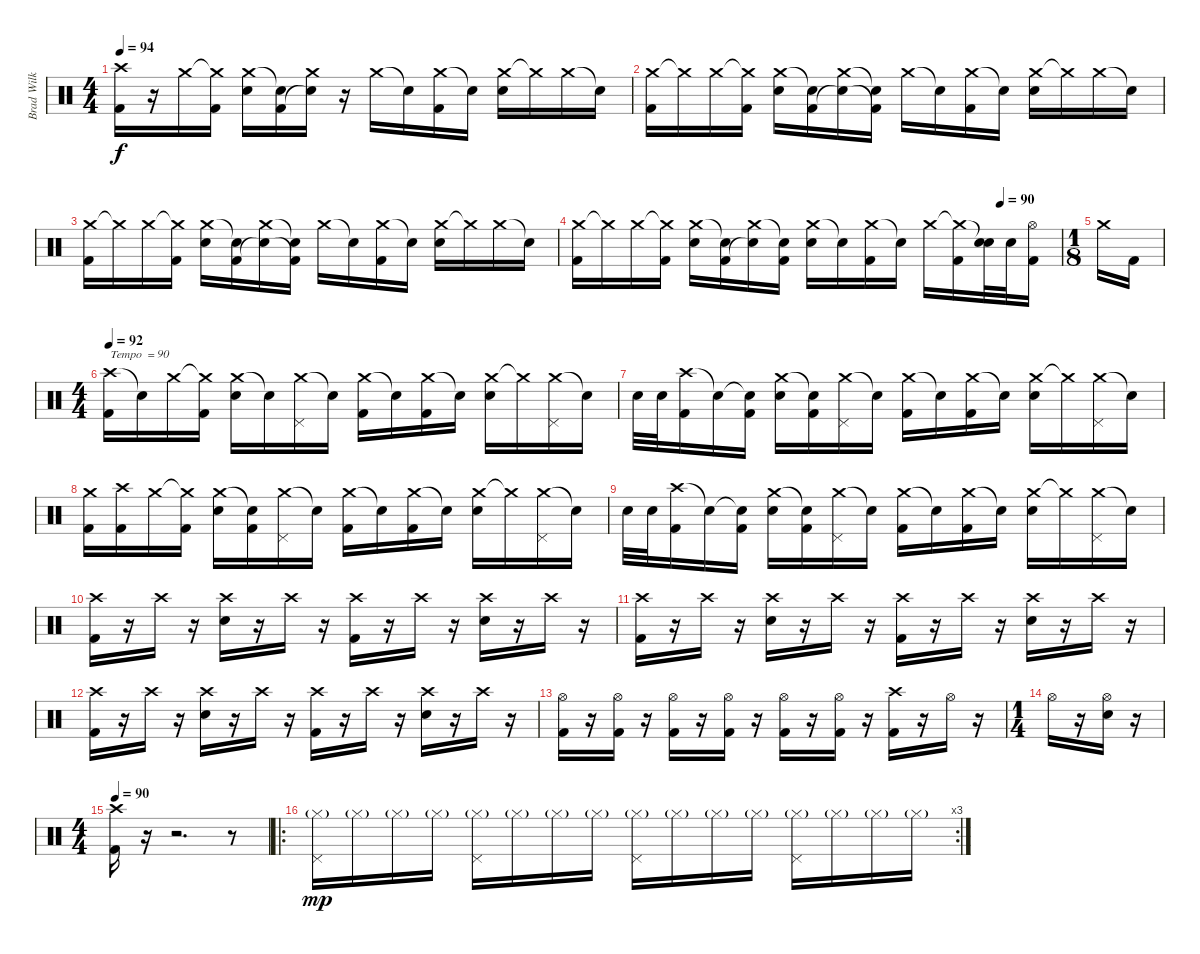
\track ("Brad Wilk (Drums)" "Brad Wilk ") {instrument percussion}
\staff {score}
\articulation defaults
\ts (4 4)
\tempo 94
\clef neutral
\ks c
("Crash high (hit)" "Kick (hit) 2").16{dy f} r.16 "Crash medium (hit)".16 ("Crash medium (hit)"{t} "Kick (hit) 2").16 ("Crash medium (hit)" "Snare (hit) 2").16 ("Snare (hit)"{t} "Kick (hit) 2").16 ("Crash medium (hit)" "Snare (hit)"{t}).16 r.16 "Crash medium (hit)".16 "Snare (hit)"{t}.16 ("Crash medium (hit)" "Kick (hit) 2").16 "Snare (hit)"{t}.16 ("Crash medium (hit)" "Snare (hit) 2").16 "Crash medium (hit)"{t}.16 "Crash medium (hit)".16 "Snare (hit)"{t}.16 |
("Crash medium (hit)" "Kick (hit) 2").16 "Crash medium (hit)"{t}.16 "Crash medium (hit)".16 ("Crash medium (hit)"{t} "Kick (hit) 2").16 ("Crash medium (hit)" "Snare (hit) 2").16 ("Snare (hit)"{t} "Kick (hit) 2").16 ("Crash medium (hit)" "Snare (hit)"{t}).16 ("Snare (hit)"{t} "Kick (hit) 2"{t}).16 "Crash medium (hit)".16 "Snare (hit)"{t}.16 ("Crash medium (hit)" "Kick (hit) 2").16 "Snare (hit)"{t}.16 ("Crash medium (hit)" "Snare (hit) 2").16 "Crash medium (hit)"{t}.16 "Crash medium (hit)".16 "Snare (hit)"{t}.16 |
("Crash medium (hit)" "Kick (hit) 2").16 "Crash medium (hit)"{t}.16 "Crash medium (hit)".16 ("Crash medium (hit)"{t} "Kick (hit) 2").16 ("Crash medium (hit)" "Snare (hit) 2").16 ("Snare (hit)"{t} "Kick (hit) 2").16 ("Crash medium (hit)" "Snare (hit)"{t}).16 ("Snare (hit)"{t} "Kick (hit) 2"{t}).16 "Crash medium (hit)".16 "Snare (hit)"{t}.16 ("Crash medium (hit)" "Kick (hit) 2").16 "Snare (hit)"{t}.16 ("Crash medium (hit)" "Snare (hit) 2").16 "Crash medium (hit)"{t}.16 "Crash medium (hit)".16 "Snare (hit)"{t}.16 |
\tempo (90 0.875)
("Crash medium (hit)" "Kick (hit) 2").16 "Crash medium (hit)"{t}.16 "Crash medium (hit)".16 ("Crash medium (hit)"{t} "Kick (hit) 2").16 ("Crash medium (hit)" "Snare (hit) 2").16 ("Snare (hit)"{t} "Kick (hit) 2").16 ("Crash medium (hit)" "Snare (hit)"{t}).16 ("Snare (hit)"{t} "Kick (hit) 2").16 ("Crash medium (hit)" "Snare (hit) 2").16 "Snare (hit)"{t}.16 ("Crash medium (hit)" "Kick (hit) 2").16 "Snare (hit)"{t}.16 "Crash medium (hit)".16 ("Crash medium (hit)"{t} "Kick (hit) 2").16 ("Snare (hit)"{t} "Snare (hit) 2").32 "Snare (hit) 2".32 ("Hi-Hat (open)" "Kick (hit) 2").16 |
\ts (1 8)
"Crash medium (hit)".16 "Kick (hit) 2".16 |
\ts (4 4)
\tempo 92
("Crash high (hit)" "Kick (hit) 2").16{txt "Tempo  = 90"} "Snare (hit)"{t}.16 "Crash medium (hit)".16 ("Crash medium (hit)"{t} "Kick (hit) 2").16 ("Crash medium (hit)" "Snare (hit) 2").16 "Snare (hit)"{t}.16 ("Crash medium (hit)" "Pedal Hi-Hat (hit)").16 "Snare (hit)"{t}.16 ("Crash medium (hit)" "Kick (hit) 2").16 "Snare (hit)"{t}.16 ("Crash medium (hit)" "Kick (hit) 2").16 "Snare (hit)"{t}.16 ("Crash medium (hit)" "Snare (hit) 2").16 "Crash medium (hit)"{t}.16 ("Crash medium (hit)" "Pedal Hi-Hat (hit)").16 "Snare (hit)"{t}.16 |
"Snare (hit) 2".32 "Snare (hit) 2".32 ("Crash high (hit)" "Kick (hit) 2").16 "Snare (hit)"{t}.16 ("Snare (hit)"{t} "Kick (hit) 2").16 ("Crash medium (hit)" "Snare (hit) 2").16 ("Snare (hit)"{t} "Kick (hit) 2").16 ("Crash medium (hit)" "Pedal Hi-Hat (hit)").16 "Snare (hit)"{t}.16 ("Crash medium (hit)" "Kick (hit) 2").16 "Snare (hit)"{t}.16 ("Crash medium (hit)" "Kick (hit) 2").16 "Snare (hit)"{t}.16 ("Crash medium (hit)" "Snare (hit) 2").16 "Crash medium (hit)"{t}.16 ("Crash medium (hit)" "Pedal Hi-Hat (hit)").16 "Snare (hit)"{t}.16 |
("Crash medium (hit)" "Kick (hit) 2").16 ("Crash high (hit)" "Kick (hit) 2").16 "Crash medium (hit)".16 ("Crash medium (hit)"{t} "Kick (hit) 2").16 ("Crash medium (hit)" "Snare (hit) 2").16 ("Snare (hit)"{t} "Kick (hit) 2").16 ("Crash medium (hit)" "Pedal Hi-Hat (hit)").16 "Snare (hit)"{t}.16 ("Crash medium (hit)" "Kick (hit) 2").16 "Snare (hit)"{t}.16 ("Crash medium (hit)" "Kick (hit) 2").16 "Snare (hit)"{t}.16 ("Crash medium (hit)" "Snare (hit) 2").16 "Crash medium (hit)"{t}.16 ("Crash medium (hit)" "Pedal Hi-Hat (hit)").16 "Snare (hit)"{t}.16 |
"Snare (hit) 2".32 "Snare (hit) 2".32 ("Crash high (hit)" "Kick (hit) 2").16 "Snare (hit)"{t}.16 ("Snare (hit)"{t} "Kick (hit) 2").16 ("Crash medium (hit)" "Snare (hit) 2").16 ("Snare (hit)"{t} "Kick (hit) 2").16 ("Crash medium (hit)" "Pedal Hi-Hat (hit)").16 "Snare (hit)"{t}.16 ("Crash medium (hit)" "Kick (hit) 2").16 "Snare (hit)"{t}.16 ("Crash medium (hit)" "Kick (hit) 2").16 "Snare (hit)"{t}.16 ("Crash medium (hit)" "Snare (hit) 2").16 "Crash medium (hit)"{t}.16 ("Crash medium (hit)" "Pedal Hi-Hat (hit)").16 "Snare (hit)"{t}.16 |
("Crash high (hit)" "Kick (hit) 2").16 r.16 "Crash high (hit)".16 r.16 ("Crash high (hit)" "Snare (hit) 2").16 r.16 "Crash high (hit)".16 r.16 ("Crash high (hit)" "Kick (hit) 2").16 r.16 "Crash high (hit)".16 r.16 ("Crash high (hit)" "Snare (hit) 2").16 r.16 "Crash high (hit)".16 r.16 |
("Crash high (hit)" "Kick (hit) 2").16 r.16 "Crash high (hit)".16 r.16 ("Crash high (hit)" "Snare (hit) 2").16 r.16 "Crash high (hit)".16 r.16 ("Crash high (hit)" "Kick (hit) 2").16 r.16 "Crash high (hit)".16 r.16 ("Crash high (hit)" "Snare (hit) 2").16 r.16 "Crash high (hit)".16 r.16 |
("Crash high (hit)" "Kick (hit) 2").16 r.16 "Crash high (hit)".16 r.16 ("Crash high (hit)" "Snare (hit) 2").16 r.16 "Crash high (hit)".16 r.16 ("Crash high (hit)" "Kick (hit) 2").16 r.16 "Crash high (hit)".16 r.16 ("Crash high (hit)" "Snare (hit) 2").16 r.16 "Crash high (hit)".16 r.16 |
("Hi-Hat (open)" "Kick (hit) 2").16 r.16 ("Hi-Hat (open)" "Kick (hit) 2").16 r.16 ("Hi-Hat (open)" "Kick (hit) 2").16 r.16 ("Hi-Hat (open)" "Kick (hit) 2").16 r.16 ("Hi-Hat (open)" "Kick (hit) 2").16 r.16 ("Hi-Hat (open)" "Kick (hit) 2").16 r.16 ("Crash high (hit)" "Kick (hit) 2").16 r.16 "Hi-Hat (open)".16 r.16 |
\ts (1 4)
"Hi-Hat (open)".16 r.16 ("Hi-Hat (open)" "Snare (hit) 2").16 r.16 |
\ts (4 4)
\tempo 90
("Crash high (hit)" "Kick (hit) 2").16 r.16 r.2{d} r.8 |
\ro
\rc 3
("Hi-Hat (closed)"{g} "Pedal Hi-Hat (hit)").16{dy mp volume 6} "Hi-Hat (closed)"{g}.16 "Hi-Hat (closed)"{g}.16 "Hi-Hat (closed)"{g}.16 ("Hi-Hat (closed)"{g} "Pedal Hi-Hat (hit)").16 "Hi-Hat (closed)"{g}.16 "Hi-Hat (closed)"{g}.16 "Hi-Hat (closed)"{g}.16 ("Hi-Hat (closed)"{g} "Pedal Hi-Hat (hit)").16 "Hi-Hat (closed)"{g}.16 "Hi-Hat (closed)"{g}.16 "Hi-Hat (closed)"{g}.16 ("Hi-Hat (closed)"{g} "Pedal Hi-Hat (hit)").16 "Hi-Hat (closed)"{g}.16 "Hi-Hat (closed)"{g}.16 "Hi-Hat (closed)"{g}.16
